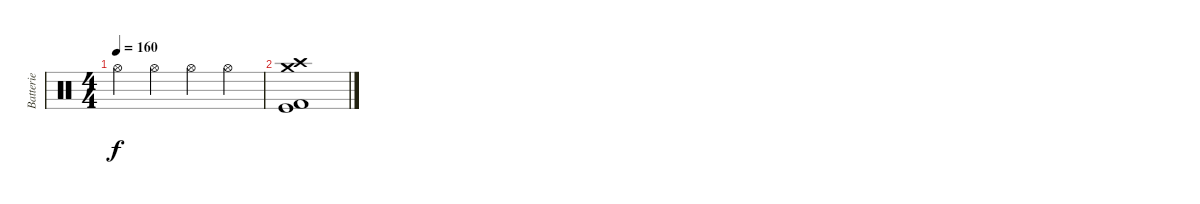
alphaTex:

\track ("Batterie" "Batterie") {instrument percussion}
\staff {score}
\articulation defaults
\ts (4 4)
\tempo 160
\clef neutral
\ks c "Hi-Hat (open)".4{dy f} "Hi-Hat (open)".4 "Hi-Hat (open)".4 "Hi-Hat (open)".4
|
("Crash medium (hit)" "Crash high (hit)" "Kick (hit) 2" "Kick (hit)").1
